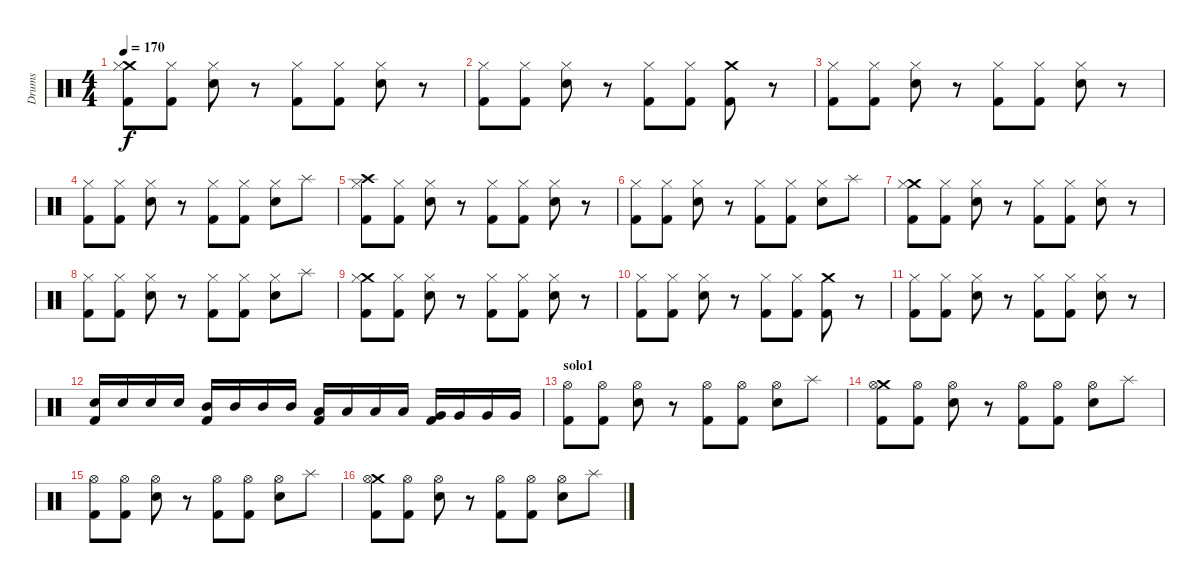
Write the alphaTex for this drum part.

\track ("Drums" "Drums") {instrument percussion}
\staff {score}
\articulation defaults
\ts (4 4)
\tempo 170
\clef neutral
\ks c
("Crash medium (hit)" "Hi-Hat (closed)" "Kick (hit) 2").8{dy f} ("Hi-Hat (closed)" "Kick (hit) 2").8 ("Hi-Hat (closed)" "Snare (hit) 2").8 r.8 ("Hi-Hat (closed)" "Kick (hit) 2").8 ("Hi-Hat (closed)" "Kick (hit) 2").8 ("Hi-Hat (closed)" "Snare (hit) 2").8 r.8 |
("Hi-Hat (closed)" "Kick (hit) 2").8 ("Hi-Hat (closed)" "Kick (hit) 2").8 ("Hi-Hat (closed)" "Snare (hit) 2").8 r.8 ("Hi-Hat (closed)" "Kick (hit) 2").8 ("Hi-Hat (closed)" "Kick (hit) 2").8 ("Crash medium (hit)" "Kick (hit) 2").8 r.8 |
("Hi-Hat (closed)" "Kick (hit) 2").8 ("Hi-Hat (closed)" "Kick (hit) 2").8 ("Hi-Hat (closed)" "Snare (hit) 2").8 r.8 ("Hi-Hat (closed)" "Kick (hit) 2").8 ("Hi-Hat (closed)" "Kick (hit) 2").8 ("Hi-Hat (closed)" "Snare (hit) 2").8 r.8 |
("Hi-Hat (closed)" "Kick (hit) 2").8 ("Hi-Hat (closed)" "Kick (hit) 2").8 ("Hi-Hat (closed)" "Snare (hit) 2").8 r.8 ("Hi-Hat (closed)" "Kick (hit) 2").8 ("Hi-Hat (closed)" "Kick (hit) 2").8 ("Hi-Hat (closed)" "Snare (hit) 2").8 "Splash (hit)".8 |
("Crash high (hit)" "Hi-Hat (closed)" "Kick (hit) 2").8 ("Hi-Hat (closed)" "Kick (hit) 2").8 ("Hi-Hat (closed)" "Snare (hit) 2").8 r.8 ("Hi-Hat (closed)" "Kick (hit) 2").8 ("Hi-Hat (closed)" "Kick (hit) 2").8 ("Hi-Hat (closed)" "Snare (hit) 2").8 r.8 |
("Hi-Hat (closed)" "Kick (hit) 2").8 ("Hi-Hat (closed)" "Kick (hit) 2").8 ("Hi-Hat (closed)" "Snare (hit) 2").8 r.8 ("Hi-Hat (closed)" "Kick (hit) 2").8 ("Hi-Hat (closed)" "Kick (hit) 2").8 ("Hi-Hat (closed)" "Snare (hit) 2").8 "Splash (hit)".8 |
("Crash medium (hit)" "Hi-Hat (closed)" "Kick (hit) 2").8 ("Hi-Hat (closed)" "Kick (hit) 2").8 ("Hi-Hat (closed)" "Snare (hit) 2").8 r.8 ("Hi-Hat (closed)" "Kick (hit) 2").8 ("Hi-Hat (closed)" "Kick (hit) 2").8 ("Hi-Hat (closed)" "Snare (hit) 2").8 r.8 |
("Hi-Hat (closed)" "Kick (hit) 2").8 ("Hi-Hat (closed)" "Kick (hit) 2").8 ("Hi-Hat (closed)" "Snare (hit) 2").8 r.8 ("Hi-Hat (closed)" "Kick (hit) 2").8 ("Hi-Hat (closed)" "Kick (hit) 2").8 ("Hi-Hat (closed)" "Snare (hit) 2").8 "Splash (hit)".8 |
("Crash medium (hit)" "Hi-Hat (closed)" "Kick (hit) 2").8 ("Hi-Hat (closed)" "Kick (hit) 2").8 ("Hi-Hat (closed)" "Snare (hit) 2").8 r.8 ("Hi-Hat (closed)" "Kick (hit) 2").8 ("Hi-Hat (closed)" "Kick (hit) 2").8 ("Hi-Hat (closed)" "Snare (hit) 2").8 r.8 |
("Hi-Hat (closed)" "Kick (hit) 2").8 ("Hi-Hat (closed)" "Kick (hit) 2").8 ("Hi-Hat (closed)" "Snare (hit) 2").8 r.8 ("Hi-Hat (closed)" "Kick (hit) 2").8 ("Hi-Hat (closed)" "Kick (hit) 2").8 ("Crash medium (hit)" "Kick (hit) 2").8 r.8 |
("Hi-Hat (closed)" "Kick (hit) 2").8 ("Hi-Hat (closed)" "Kick (hit) 2").8 ("Hi-Hat (closed)" "Snare (hit) 2").8 r.8 ("Hi-Hat (closed)" "Kick (hit) 2").8 ("Hi-Hat (closed)" "Kick (hit) 2").8 ("Hi-Hat (closed)" "Snare (hit) 2").8 r.8 |
("Snare (hit) 2" "Kick (hit) 2").16 "Snare (hit) 2".16 "Snare (hit) 2".16 "Snare (hit) 2".16 ("Mid Tom (hit)" "Kick (hit) 2").16 "Mid Tom (hit)".16 "Mid Tom (hit)".16 "Mid Tom (hit)".16 ("Low Tom (hit)" "Kick (hit) 2").16 "Low Tom (hit)".16 "Low Tom (hit)".16 "Low Tom (hit)".16 ("Very Low Tom (hit)" "Kick (hit) 2").16 "Very Low Tom (hit)".16 "Very Low Tom (hit)".16 "Very Low Tom (hit)".16 |
\section ("" "solo1")
("Hi-Hat (open)" "Kick (hit) 2").8 ("Hi-Hat (open)" "Kick (hit) 2").8 ("Hi-Hat (open)" "Snare (hit) 2").8 r.8 ("Hi-Hat (open)" "Kick (hit) 2").8 ("Hi-Hat (open)" "Kick (hit) 2").8 ("Hi-Hat (open)" "Snare (hit) 2").8 "Splash (hit)".8 |
("Crash medium (hit)" "Hi-Hat (open)" "Kick (hit) 2").8 ("Hi-Hat (open)" "Kick (hit) 2").8 ("Hi-Hat (open)" "Snare (hit) 2").8 r.8 ("Hi-Hat (open)" "Kick (hit) 2").8 ("Hi-Hat (open)" "Kick (hit) 2").8 ("Hi-Hat (open)" "Snare (hit) 2").8 "Splash (hit)".8 |
("Hi-Hat (open)" "Kick (hit) 2").8 ("Hi-Hat (open)" "Kick (hit) 2").8 ("Hi-Hat (open)" "Snare (hit) 2").8 r.8 ("Hi-Hat (open)" "Kick (hit) 2").8 ("Hi-Hat (open)" "Kick (hit) 2").8 ("Hi-Hat (open)" "Snare (hit) 2").8 "Splash (hit)".8 |
("Crash medium (hit)" "Hi-Hat (open)" "Kick (hit) 2").8 ("Hi-Hat (open)" "Kick (hit) 2").8 ("Hi-Hat (open)" "Snare (hit) 2").8 r.8 ("Hi-Hat (open)" "Kick (hit) 2").8 ("Hi-Hat (open)" "Kick (hit) 2").8 ("Hi-Hat (open)" "Snare (hit) 2").8 "Splash (hit)".8
